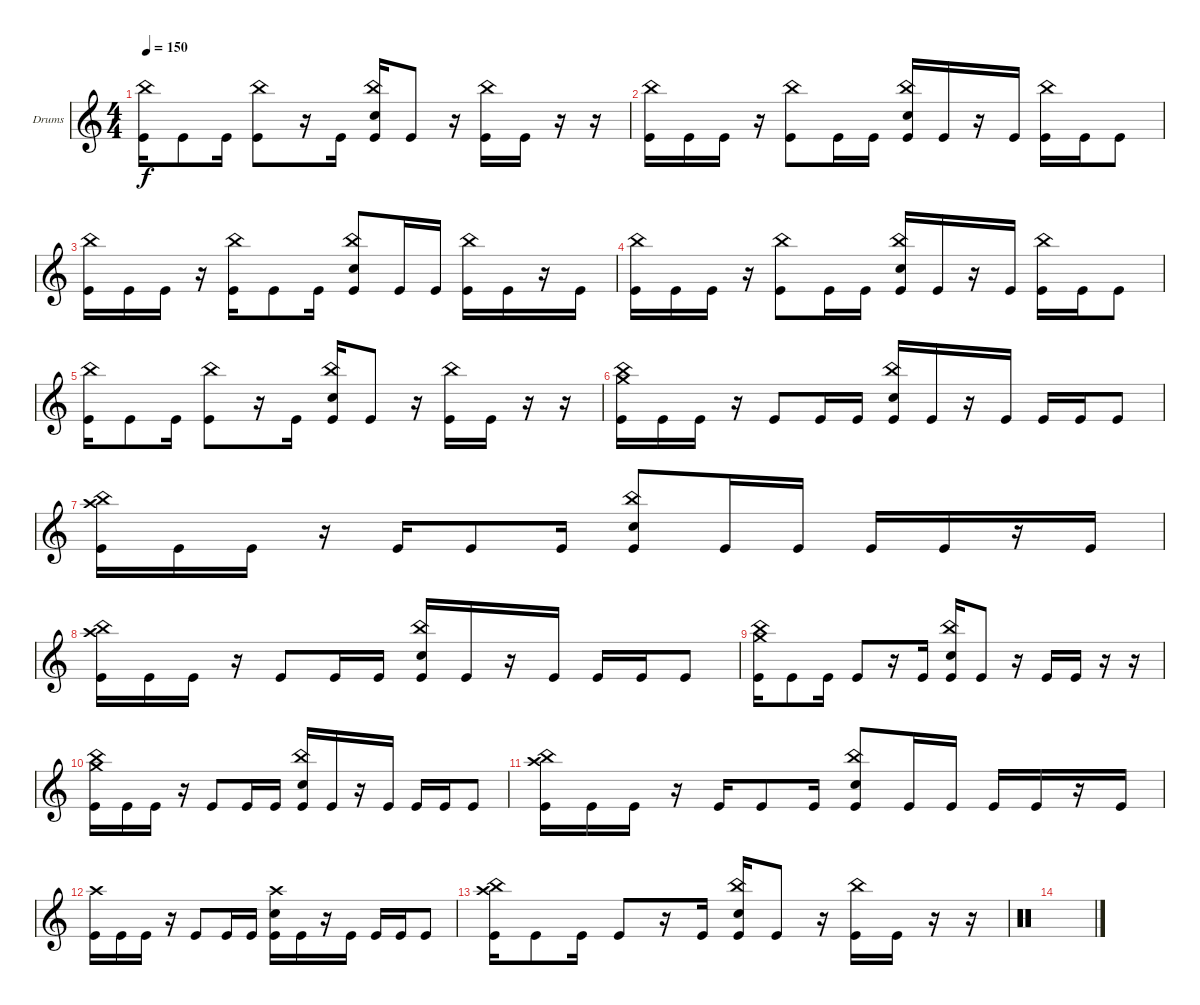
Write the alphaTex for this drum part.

\defaultSystemsLayout 4
\bracketExtendMode groupsimilarinstruments
\firstSystemTrackNameOrientation horizontal
\otherSystemsTrackNameOrientation horizontal
\track ("Drumkit" "Drums") {instrument percussion}
\staff {score}
\articulation defaults
\ts (4 4)
\tempo 150
\clef g2
\ks c
("Kick (hit)" "China (hit)").16{dy f} "Kick (hit)".8 "Kick (hit)".16 ("Kick (hit)" "China (hit)").8 r.16 "Kick (hit)".16 ("Kick (hit)" "China (hit)" "Snare (hit) 2").16 "Kick (hit)".8 r.16 ("Kick (hit)" "China (hit)").16 "Kick (hit)".16 r.16 r.16 |
("Kick (hit)" "China (hit)").16 "Kick (hit)".16 "Kick (hit)".16 r.16 ("Kick (hit)" "China (hit)").8 "Kick (hit)".16 "Kick (hit)".16 ("Kick (hit)" "China (hit)" "Snare (hit) 2").16 "Kick (hit)".16 r.16 "Kick (hit)".16 ("Kick (hit)" "China (hit)").16 "Kick (hit)".16 "Kick (hit)".8 |
("Kick (hit)" "China (hit)").16 "Kick (hit)".16 "Kick (hit)".16 r.16 ("Kick (hit)" "China (hit)").16 "Kick (hit)".8 "Kick (hit)".16 ("Kick (hit)" "China (hit)" "Snare (hit) 2").8 "Kick (hit)".16 "Kick (hit)".16 ("Kick (hit)" "China (hit)").16 "Kick (hit)".16 r.16 "Kick (hit)".16 |
("Kick (hit)" "China (hit)").16 "Kick (hit)".16 "Kick (hit)".16 r.16 ("Kick (hit)" "China (hit)").8 "Kick (hit)".16 "Kick (hit)".16 ("Kick (hit)" "China (hit)" "Snare (hit) 2").16 "Kick (hit)".16 r.16 "Kick (hit)".16 ("Kick (hit)" "China (hit)").16 "Kick (hit)".16 "Kick (hit)".8 |
("Kick (hit)" "China (hit)").16 "Kick (hit)".8 "Kick (hit)".16 ("Kick (hit)" "China (hit)").8 r.16 "Kick (hit)".16 ("Kick (hit)" "China (hit)" "Snare (hit) 2").16 "Kick (hit)".8 r.16 ("Kick (hit)" "China (hit)").16 "Kick (hit)".16 r.16 r.16 |
("Kick (hit)" "China (hit)" "Crash medium (hit)").16 "Kick (hit)".16 "Kick (hit)".16 r.16 "Kick (hit)".8 "Kick (hit)".16 "Kick (hit)".16 ("Kick (hit)" "China (hit)" "Snare (hit) 2").16 "Kick (hit)".16 r.16 "Kick (hit)".16 "Kick (hit)".16 "Kick (hit)".16 "Kick (hit)".8 |
("Kick (hit)" "China (hit)" "Crash high (hit)").16 "Kick (hit)".16 "Kick (hit)".16 r.16 "Kick (hit)".16 "Kick (hit)".8 "Kick (hit)".16 ("Kick (hit)" "China (hit)" "Snare (hit) 2").8 "Kick (hit)".16 "Kick (hit)".16 "Kick (hit)".16 "Kick (hit)".16 r.16 "Kick (hit)".16 |
("Kick (hit)" "China (hit)" "Crash high (hit)").16 "Kick (hit)".16 "Kick (hit)".16 r.16 "Kick (hit)".8 "Kick (hit)".16 "Kick (hit)".16 ("Kick (hit)" "China (hit)" "Snare (hit) 2").16 "Kick (hit)".16 r.16 "Kick (hit)".16 "Kick (hit)".16 "Kick (hit)".16 "Kick (hit)".8 |
("Kick (hit)" "China (hit)" "Crash medium (hit)").16 "Kick (hit)".8 "Kick (hit)".16 "Kick (hit)".8 r.16 "Kick (hit)".16 ("Kick (hit)" "China (hit)" "Snare (hit) 2").16 "Kick (hit)".8 r.16 "Kick (hit)".16 "Kick (hit)".16 r.16 r.16 |
("Kick (hit)" "China (hit)" "Crash medium (hit)").16 "Kick (hit)".16 "Kick (hit)".16 r.16 "Kick (hit)".8 "Kick (hit)".16 "Kick (hit)".16 ("Kick (hit)" "China (hit)" "Snare (hit) 2").16 "Kick (hit)".16 r.16 "Kick (hit)".16 "Kick (hit)".16 "Kick (hit)".16 "Kick (hit)".8 |
("Kick (hit)" "China (hit)" "Crash high (hit)").16 "Kick (hit)".16 "Kick (hit)".16 r.16 "Kick (hit)".16 "Kick (hit)".8 "Kick (hit)".16 ("Kick (hit)" "China (hit)" "Snare (hit) 2").8 "Kick (hit)".16 "Kick (hit)".16 "Kick (hit)".16 "Kick (hit)".16 r.16 "Kick (hit)".16 |
("Kick (hit)" "Crash high (hit)").16 "Kick (hit)".16 "Kick (hit)".16 r.16 "Kick (hit)".8 "Kick (hit)".16 "Kick (hit)".16 ("Kick (hit)" "Snare (hit) 2" "Crash high (hit)").16 "Kick (hit)".16 r.16 "Kick (hit)".16 "Kick (hit)".16 "Kick (hit)".16 "Kick (hit)".8 |
("Kick (hit)" "China (hit)" "Crash high (hit)").16 "Kick (hit)".8 "Kick (hit)".16 "Kick (hit)".8 r.16 "Kick (hit)".16 ("Kick (hit)" "Snare (hit) 2" "China (hit)").16 "Kick (hit)".8 r.16 ("Kick (hit)" "China (hit)").16 "Kick (hit)".16 r.16 r.16 |
\clef neutral
